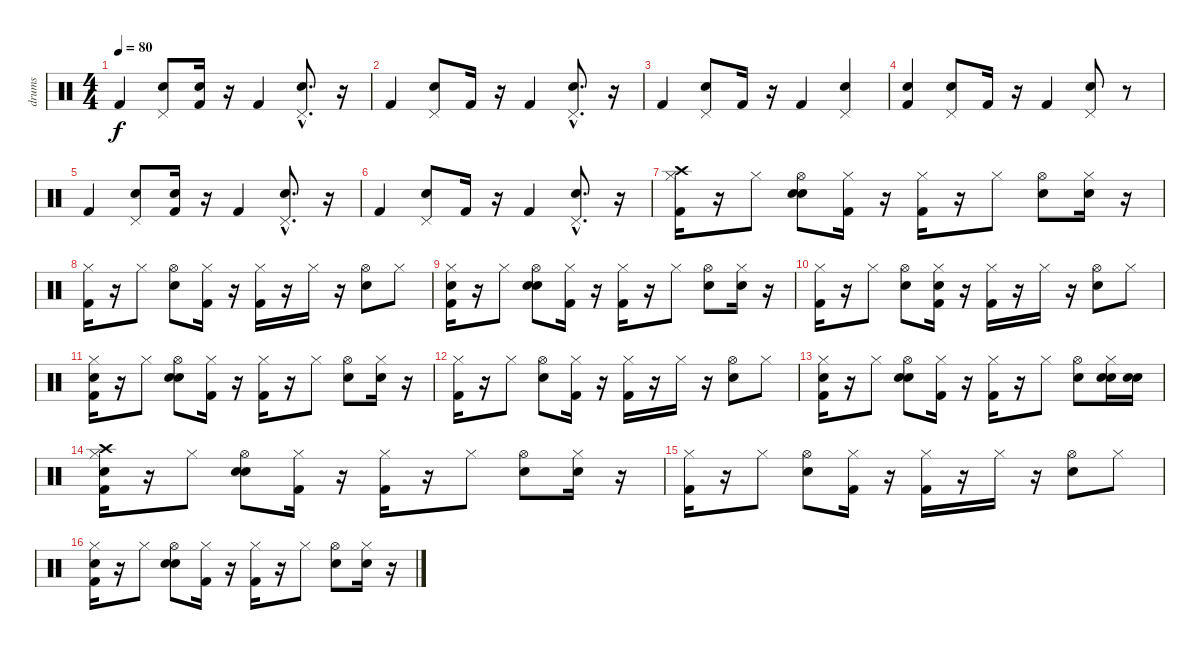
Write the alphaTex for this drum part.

\track ("drums" "drums") {instrument percussion}
\staff {score}
\articulation defaults
\ts (4 4)
\tempo 80
\clef neutral
\ks c "Kick (hit) 2".4{dy f}
("Pedal Hi-Hat (hit)" "Snare (hit) 2").8 ("Snare (hit)" "Kick (hit) 2").16 r.16 "Kick (hit) 2".4 ("Pedal Hi-Hat (hit)"{hac} "Snare (hit) 2"{hac}).8{d} r.16 |
"Kick (hit) 2".4 ("Pedal Hi-Hat (hit)" "Snare (hit) 2").8 "Kick (hit) 2".16 r.16 "Kick (hit) 2".4 ("Pedal Hi-Hat (hit)"{hac} "Snare (hit) 2"{hac}).8{d} r.16 |
"Kick (hit) 2".4 ("Snare (hit) 2" "Pedal Hi-Hat (hit)").8 "Kick (hit) 2".16 r.16 "Kick (hit) 2".4 ("Pedal Hi-Hat (hit)" "Snare (hit) 2").4 |
("Snare (hit)" "Kick (hit) 2").4 ("Pedal Hi-Hat (hit)" "Snare (hit) 2").8 "Kick (hit) 2".16 r.16 "Kick (hit) 2".4 ("Snare (hit) 2" "Pedal Hi-Hat (hit)").8 r.8 |
"Kick (hit) 2".4 ("Snare (hit) 2" "Pedal Hi-Hat (hit)").8 ("Snare (hit)" "Kick (hit) 2").16 r.16 "Kick (hit) 2".4 ("Snare (hit) 2"{hac} "Pedal Hi-Hat (hit)"{hac}).8{d} r.16 |
"Kick (hit) 2".4 ("Snare (hit) 2" "Pedal Hi-Hat (hit)").8 "Kick (hit) 2".16 r.16 "Kick (hit) 2".4 ("Pedal Hi-Hat (hit)"{hac} "Snare (hit) 2"{hac}).8{d} r.16 |
("Hi-Hat (closed)" "Crash high (hit)" "Kick (hit) 2").16 r.16 "Hi-Hat (closed)".8 ("Snare (hit)" "Snare (hit) 2" "Hi-Hat (open)").8 ("Hi-Hat (closed)" "Kick (hit) 2").16 r.16 ("Kick (hit) 2" "Hi-Hat (closed)").16 r.16 "Hi-Hat (closed)".8 ("Hi-Hat (open)" "Snare (hit) 2").8 ("Snare (hit)" "Hi-Hat (closed)").16 r.16 |
("Kick (hit) 2" "Hi-Hat (closed)").16 r.16 "Hi-Hat (closed)".8 ("Snare (hit) 2" "Hi-Hat (open)").8 ("Kick (hit) 2" "Hi-Hat (closed)").16 r.16 ("Kick (hit) 2" "Hi-Hat (closed)").16 r.16 "Hi-Hat (closed)".16 r.16 ("Hi-Hat (open)" "Snare (hit) 2").8 "Hi-Hat (closed)".8 |
("Snare (hit)" "Hi-Hat (closed)" "Kick (hit) 2").16 r.16 "Hi-Hat (closed)".8 ("Snare (hit)" "Snare (hit) 2" "Hi-Hat (open)").8 ("Kick (hit) 2" "Hi-Hat (closed)").16 r.16 ("Kick (hit) 2" "Hi-Hat (closed)").16 r.16 "Hi-Hat (closed)".8 ("Snare (hit) 2" "Hi-Hat (open)").8 ("Snare (hit)" "Hi-Hat (closed)").16 r.16 |
("Kick (hit) 2" "Hi-Hat (closed)").16 r.16 "Hi-Hat (closed)".8 ("Snare (hit) 2" "Hi-Hat (open)").8 ("Snare (hit)" "Kick (hit) 2" "Hi-Hat (closed)").16 r.16 ("Hi-Hat (closed)" "Kick (hit) 2").16 r.16 "Hi-Hat (closed)".16 r.16 ("Hi-Hat (open)" "Snare (hit) 2").8 "Hi-Hat (closed)".8 |
("Snare (hit)" "Kick (hit) 2" "Hi-Hat (closed)").16 r.16 "Hi-Hat (closed)".8 ("Snare (hit)" "Snare (hit) 2" "Hi-Hat (open)").8 ("Hi-Hat (closed)" "Kick (hit) 2").16 r.16 ("Hi-Hat (closed)" "Kick (hit) 2").16 r.16 "Hi-Hat (closed)".8 ("Snare (hit) 2" "Hi-Hat (open)").8 ("Snare (hit)" "Hi-Hat (closed)").16 r.16 |
("Kick (hit) 2" "Hi-Hat (closed)").16 r.16 "Hi-Hat (closed)".8 ("Hi-Hat (open)" "Snare (hit) 2").8 ("Hi-Hat (closed)" "Kick (hit) 2").16 r.16 ("Hi-Hat (closed)" "Kick (hit) 2").16 r.16 "Hi-Hat (closed)".16 r.16 ("Hi-Hat (open)" "Snare (hit) 2").8 "Hi-Hat (closed)".8 |
("Snare (hit)" "Kick (hit) 2" "Hi-Hat (closed)").16 r.16 "Hi-Hat (closed)".8 ("Snare (hit)" "Hi-Hat (open)" "Snare (hit) 2").8 ("Hi-Hat (closed)" "Kick (hit) 2").16 r.16 ("Kick (hit) 2" "Hi-Hat (closed)").16 r.16 "Hi-Hat (closed)".8 ("Hi-Hat (open)" "Snare (hit) 2").8 ("Snare (hit)" "Hi-Hat (closed)" "Snare (hit) 2").16 ("Snare (hit)" "Snare (hit) 2").16 |
("Snare (hit)" "Crash high (hit)" "Kick (hit) 2" "Hi-Hat (closed)").16 r.16 "Hi-Hat (closed)".8 ("Snare (hit)" "Snare (hit) 2" "Hi-Hat (open)").8 ("Hi-Hat (closed)" "Kick (hit) 2").16 r.16 ("Kick (hit) 2" "Hi-Hat (closed)").16 r.16 "Hi-Hat (closed)".8 ("Snare (hit) 2" "Hi-Hat (open)").8 ("Snare (hit)" "Hi-Hat (closed)").16 r.16 |
("Hi-Hat (closed)" "Kick (hit) 2").16 r.16 "Hi-Hat (closed)".8 ("Snare (hit) 2" "Hi-Hat (open)").8 ("Kick (hit) 2" "Hi-Hat (closed)").16 r.16 ("Hi-Hat (closed)" "Kick (hit) 2").16 r.16 "Hi-Hat (closed)".16 r.16 ("Hi-Hat (open)" "Snare (hit) 2").8 "Hi-Hat (closed)".8 |
("Snare (hit)" "Hi-Hat (closed)" "Kick (hit) 2").16 r.16 "Hi-Hat (closed)".8 ("Snare (hit)" "Hi-Hat (open)" "Snare (hit) 2").8 ("Hi-Hat (closed)" "Kick (hit) 2").16 r.16 ("Hi-Hat (closed)" "Kick (hit) 2").16 r.16 "Hi-Hat (closed)".8 ("Hi-Hat (open)" "Snare (hit) 2").8 ("Snare (hit)" "Hi-Hat (closed)").16 r.16
